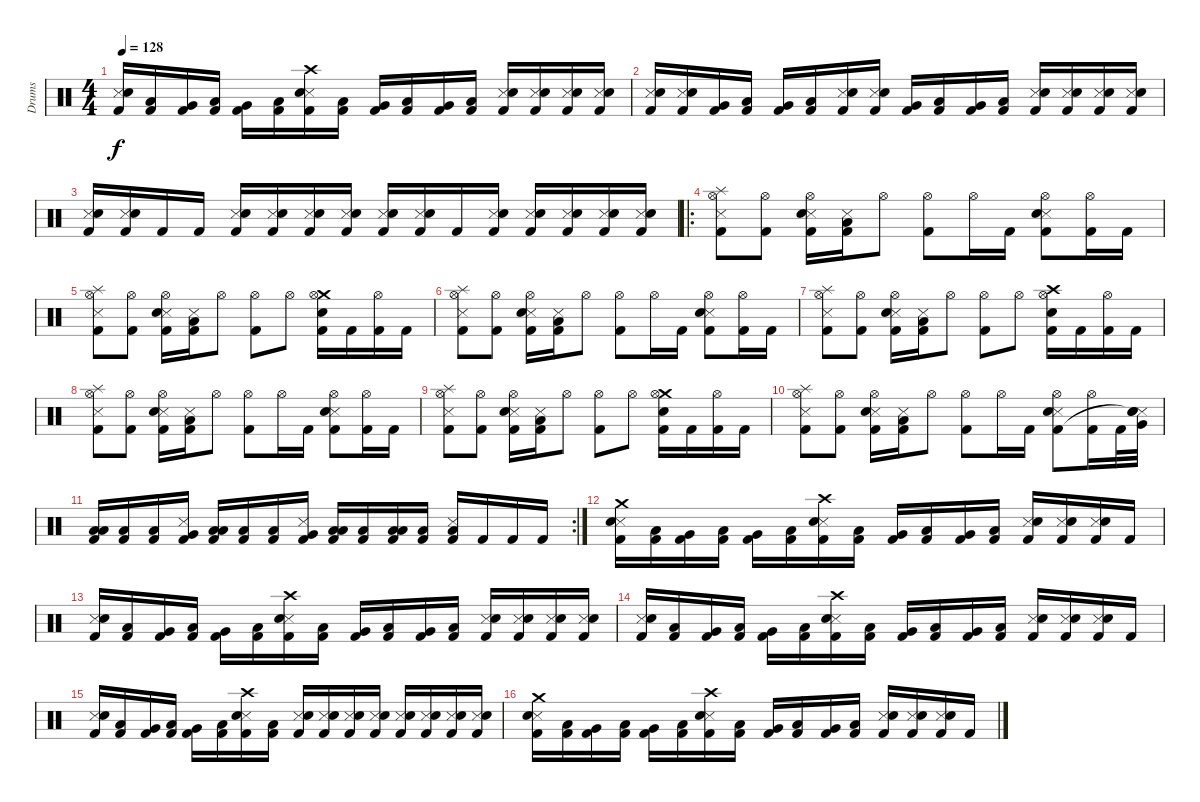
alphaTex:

\track ("Drums" "Drums") {instrument percussion}
\staff {score}
\articulation defaults
\ts (4 4)
\tempo 128
\clef neutral
\ks c
("Snare (side stick) 3" "Electric Snare (hit)" "Kick (hit) 2").16{dy f} ("Low Floor Tom (hit)" "Kick (hit) 2").16 ("Very Low Tom (hit)" "Kick (hit) 2").16 ("Low Floor Tom (hit)" "Kick (hit) 2").16 ("Very Low Tom (hit)" "Kick (hit) 2").16 ("Low Floor Tom (hit)" "Kick (hit) 2").16 ("Crash high (hit)" "Snare (side stick) 3" "Electric Snare (hit)" "Kick (hit) 2").16 ("Low Floor Tom (hit)" "Kick (hit) 2").16 ("Very Low Tom (hit)" "Kick (hit) 2").16 ("Low Floor Tom (hit)" "Kick (hit) 2").16 ("Very Low Tom (hit)" "Kick (hit) 2").16 ("Low Floor Tom (hit)" "Kick (hit) 2").16 ("Snare (side stick) 3" "Electric Snare (hit)" "Kick (hit) 2").16 ("Snare (side stick) 3" "Electric Snare (hit)" "Kick (hit) 2").16 ("Snare (side stick) 3" "Electric Snare (hit)" "Kick (hit) 2").16 ("Snare (side stick) 3" "Electric Snare (hit)" "Kick (hit) 2").16 |
("Snare (side stick) 3" "Electric Snare (hit)" "Kick (hit) 2").16 ("Snare (side stick) 3" "Electric Snare (hit)" "Kick (hit) 2").16 ("Very Low Tom (hit)" "Kick (hit) 2").16 ("Low Floor Tom (hit)" "Kick (hit) 2").16 ("Very Low Tom (hit)" "Kick (hit) 2").16 ("Low Floor Tom (hit)" "Kick (hit) 2").16 ("Snare (side stick) 3" "Electric Snare (hit)" "Kick (hit) 2").16 ("Snare (side stick) 3" "Electric Snare (hit)" "Kick (hit) 2").16 ("Very Low Tom (hit)" "Kick (hit) 2").16 ("Low Floor Tom (hit)" "Kick (hit) 2").16 ("Very Low Tom (hit)" "Kick (hit) 2").16 ("Low Floor Tom (hit)" "Kick (hit) 2").16 ("Snare (side stick) 3" "Electric Snare (hit)" "Kick (hit) 2").16 ("Snare (side stick) 3" "Electric Snare (hit)" "Kick (hit) 2").16 ("Snare (side stick) 3" "Electric Snare (hit)" "Kick (hit) 2").16 ("Snare (side stick) 3" "Electric Snare (hit)" "Kick (hit) 2").16 |
("Snare (side stick) 3" "Electric Snare (hit)" "Kick (hit) 2").16 ("Snare (side stick) 3" "Electric Snare (hit)" "Kick (hit) 2").16 "Kick (hit) 2".16 "Kick (hit) 2".16 ("Snare (side stick) 3" "Electric Snare (hit)" "Kick (hit) 2").16 ("Snare (side stick) 3" "Electric Snare (hit)" "Kick (hit) 2").16 ("Snare (side stick) 3" "Electric Snare (hit)" "Kick (hit) 2").16 ("Snare (side stick) 3" "Electric Snare (hit)" "Kick (hit) 2").16 ("Snare (side stick) 3" "Electric Snare (hit)" "Kick (hit) 2").16 ("Snare (side stick) 3" "Electric Snare (hit)" "Kick (hit) 2").16 "Kick (hit) 2".16 ("Snare (side stick) 3" "Electric Snare (hit)" "Kick (hit) 2").16 ("Snare (side stick) 3" "Electric Snare (hit)" "Kick (hit) 2").16 ("Snare (side stick) 3" "Electric Snare (hit)" "Kick (hit) 2").16 ("Snare (side stick) 3" "Electric Snare (hit)" "Kick (hit) 2").16 ("Snare (side stick) 3" "Electric Snare (hit)" "Kick (hit) 2").16 |
\ro
("Splash (hit)" "Snare (side stick) 3" "Hi-Hat (open)" "Kick (hit) 2").8 ("Hi-Hat (open)" "Kick (hit) 2").8 ("Snare (side stick) 3" "Hi-Hat (open)" "Electric Snare (hit)" "Kick (hit) 2").16 ("Snare (side stick) 3" "Low Floor Tom (hit)" "Kick (hit) 2").16 "Hi-Hat (open)".8 ("Hi-Hat (open)" "Kick (hit) 2").8 "Hi-Hat (open)".16 "Kick (hit) 2".16 ("Snare (side stick) 3" "Hi-Hat (open)" "Electric Snare (hit)" "Kick (hit) 2").8 ("Hi-Hat (open)" "Kick (hit) 2").16 "Kick (hit) 2".16 |
("Splash (hit)" "Snare (side stick) 3" "Hi-Hat (open)" "Kick (hit) 2").8 ("Hi-Hat (open)" "Kick (hit) 2").8 ("Snare (side stick) 3" "Hi-Hat (open)" "Electric Snare (hit)" "Kick (hit) 2").16 ("Snare (side stick) 3" "Low Floor Tom (hit)" "Kick (hit) 2").16 "Hi-Hat (open)".8 ("Hi-Hat (open)" "Kick (hit) 2").8 "Hi-Hat (open)".8 ("Crash medium (hit)" "Hi-Hat (open)" "Electric Snare (hit)" "Kick (hit) 2").16 "Kick (hit) 2".16 ("Hi-Hat (open)" "Kick (hit) 2").16 "Kick (hit) 2".16 |
("Splash (hit)" "Snare (side stick) 3" "Hi-Hat (open)" "Kick (hit) 2").8 ("Hi-Hat (open)" "Kick (hit) 2").8 ("Snare (side stick) 3" "Hi-Hat (open)" "Electric Snare (hit)" "Kick (hit) 2").16 ("Snare (side stick) 3" "Low Floor Tom (hit)" "Kick (hit) 2").16 "Hi-Hat (open)".8 ("Hi-Hat (open)" "Kick (hit) 2").8 "Hi-Hat (open)".16 "Kick (hit) 2".16 ("Snare (side stick) 3" "Hi-Hat (open)" "Electric Snare (hit)" "Kick (hit) 2").8 ("Hi-Hat (open)" "Kick (hit) 2").16 "Kick (hit) 2".16 |
("Splash (hit)" "Snare (side stick) 3" "Hi-Hat (open)" "Kick (hit) 2").8 ("Hi-Hat (open)" "Kick (hit) 2").8 ("Snare (side stick) 3" "Hi-Hat (open)" "Electric Snare (hit)" "Kick (hit) 2").16 ("Snare (side stick) 3" "Low Floor Tom (hit)" "Kick (hit) 2").16 "Hi-Hat (open)".8 ("Hi-Hat (open)" "Kick (hit) 2").8 "Hi-Hat (open)".8 ("Crash high (hit)" "Hi-Hat (open)" "Electric Snare (hit)" "Kick (hit) 2").16 "Kick (hit) 2".16 ("Hi-Hat (open)" "Kick (hit) 2").16 "Kick (hit) 2".16 |
("Splash (hit)" "Snare (side stick) 3" "Hi-Hat (open)" "Kick (hit) 2").8 ("Hi-Hat (open)" "Kick (hit) 2").8 ("Snare (side stick) 3" "Hi-Hat (open)" "Electric Snare (hit)" "Kick (hit) 2").16 ("Snare (side stick) 3" "Low Floor Tom (hit)" "Kick (hit) 2").16 "Hi-Hat (open)".8 ("Hi-Hat (open)" "Kick (hit) 2").8 "Hi-Hat (open)".16 "Kick (hit) 2".16 ("Snare (side stick) 3" "Hi-Hat (open)" "Electric Snare (hit)" "Kick (hit) 2").8 ("Hi-Hat (open)" "Kick (hit) 2").16 "Kick (hit) 2".16 |
("Splash (hit)" "Snare (side stick) 3" "Hi-Hat (open)" "Kick (hit) 2").8 ("Hi-Hat (open)" "Kick (hit) 2").8 ("Snare (side stick) 3" "Hi-Hat (open)" "Electric Snare (hit)" "Kick (hit) 2").16 ("Snare (side stick) 3" "Low Floor Tom (hit)" "Kick (hit) 2").16 "Hi-Hat (open)".8 ("Hi-Hat (open)" "Kick (hit) 2").8 "Hi-Hat (open)".8 ("Crash medium (hit)" "Hi-Hat (open)" "Electric Snare (hit)" "Kick (hit) 2").16 "Kick (hit) 2".16 ("Hi-Hat (open)" "Kick (hit) 2").16 "Kick (hit) 2".16 |
("Splash (hit)" "Snare (side stick) 3" "Hi-Hat (open)" "Kick (hit) 2").8 ("Hi-Hat (open)" "Kick (hit) 2").8 ("Snare (side stick) 3" "Hi-Hat (open)" "Electric Snare (hit)" "Kick (hit) 2").16 ("Snare (side stick) 3" "Low Floor Tom (hit)" "Kick (hit) 2").16 "Hi-Hat (open)".8 ("Hi-Hat (open)" "Kick (hit) 2").8 "Hi-Hat (open)".16 "Kick (hit) 2".16 ("Snare (side stick) 3" "Hi-Hat (open)" "Electric Snare (hit)" "Kick (hit) 2").8 ("Hi-Hat (open)" "Kick (hit) 2").16 "Kick (hit) 2".32 ("Snare (side stick) 3" "Very Low Tom (hit)" "Electric Snare (hit)" "Snare (hit)"{t}).32 |
\rc 2
("Low Floor Tom (hit)" "Low Floor Tom (hit)" "Kick (hit) 2").16 ("Low Floor Tom (hit)" "Kick (hit) 2").16 ("Low Floor Tom (hit)" "Kick (hit) 2").16 ("Snare (side stick) 3" "Very Low Tom (hit)" "Kick (hit) 2").16 ("Low Floor Tom (hit)" "Low Floor Tom (hit)" "Kick (hit) 2").16 ("Low Floor Tom (hit)" "Kick (hit) 2").16 ("Low Floor Tom (hit)" "Kick (hit) 2").16 ("Snare (side stick) 3" "Very Low Tom (hit)" "Kick (hit) 2").16 ("Low Floor Tom (hit)" "Low Floor Tom (hit)" "Kick (hit) 2").16 ("Low Floor Tom (hit)" "Kick (hit) 2").16 ("Low Floor Tom (hit)" "Low Floor Tom (hit)" "Kick (hit) 2").16 ("Low Floor Tom (hit)" "Kick (hit) 2").16 ("Snare (side stick) 3" "Low Floor Tom (hit)" "Kick (hit) 2").16 "Kick (hit) 2".16 "Kick (hit) 2".16 "Kick (hit) 2".16 |
("Crash medium (hit)" "Snare (side stick) 3" "Electric Snare (hit)" "Kick (hit) 2").16 ("Low Floor Tom (hit)" "Kick (hit) 2").16 ("Very Low Tom (hit)" "Kick (hit) 2").16 ("Low Floor Tom (hit)" "Kick (hit) 2").16 ("Very Low Tom (hit)" "Kick (hit) 2").16 ("Low Floor Tom (hit)" "Kick (hit) 2").16 ("Crash high (hit)" "Snare (side stick) 3" "Electric Snare (hit)" "Kick (hit) 2").16 ("Low Floor Tom (hit)" "Kick (hit) 2").16 ("Very Low Tom (hit)" "Kick (hit) 2").16 ("Low Floor Tom (hit)" "Kick (hit) 2").16 ("Very Low Tom (hit)" "Kick (hit) 2").16 ("Low Floor Tom (hit)" "Kick (hit) 2").16 ("Snare (side stick) 3" "Electric Snare (hit)" "Kick (hit) 2").16 ("Snare (side stick) 3" "Electric Snare (hit)" "Kick (hit) 2").16 ("Snare (side stick) 3" "Electric Snare (hit)" "Kick (hit) 2").16 "Kick (hit) 2".16 |
("Snare (side stick) 3" "Electric Snare (hit)" "Kick (hit) 2").16 ("Low Floor Tom (hit)" "Kick (hit) 2").16 ("Very Low Tom (hit)" "Kick (hit) 2").16 ("Low Floor Tom (hit)" "Kick (hit) 2").16 ("Very Low Tom (hit)" "Kick (hit) 2").16 ("Low Floor Tom (hit)" "Kick (hit) 2").16 ("Crash high (hit)" "Snare (side stick) 3" "Electric Snare (hit)" "Kick (hit) 2").16 ("Low Floor Tom (hit)" "Kick (hit) 2").16 ("Very Low Tom (hit)" "Kick (hit) 2").16 ("Low Floor Tom (hit)" "Kick (hit) 2").16 ("Very Low Tom (hit)" "Kick (hit) 2").16 ("Low Floor Tom (hit)" "Kick (hit) 2").16 ("Snare (side stick) 3" "Electric Snare (hit)" "Kick (hit) 2").16 ("Snare (side stick) 3" "Electric Snare (hit)" "Kick (hit) 2").16 ("Snare (side stick) 3" "Electric Snare (hit)" "Kick (hit) 2").16 ("Snare (side stick) 3" "Electric Snare (hit)" "Kick (hit) 2").16 |
("Snare (side stick) 3" "Electric Snare (hit)" "Kick (hit) 2").16 ("Low Floor Tom (hit)" "Kick (hit) 2").16 ("Very Low Tom (hit)" "Kick (hit) 2").16 ("Low Floor Tom (hit)" "Kick (hit) 2").16 ("Very Low Tom (hit)" "Kick (hit) 2").16 ("Low Floor Tom (hit)" "Kick (hit) 2").16 ("Crash high (hit)" "Snare (side stick) 3" "Electric Snare (hit)" "Kick (hit) 2").16 ("Low Floor Tom (hit)" "Kick (hit) 2").16 ("Very Low Tom (hit)" "Kick (hit) 2").16 ("Low Floor Tom (hit)" "Kick (hit) 2").16 ("Very Low Tom (hit)" "Kick (hit) 2").16 ("Low Floor Tom (hit)" "Kick (hit) 2").16 ("Snare (side stick) 3" "Electric Snare (hit)" "Kick (hit) 2").16 ("Snare (side stick) 3" "Electric Snare (hit)" "Kick (hit) 2").16 ("Snare (side stick) 3" "Electric Snare (hit)" "Kick (hit) 2").16 "Kick (hit) 2".16 |
("Snare (side stick) 3" "Electric Snare (hit)" "Kick (hit) 2").16 ("Low Floor Tom (hit)" "Kick (hit) 2").16 ("Very Low Tom (hit)" "Kick (hit) 2").16 ("Low Floor Tom (hit)" "Kick (hit) 2").16 ("Very Low Tom (hit)" "Kick (hit) 2").16 ("Low Floor Tom (hit)" "Kick (hit) 2").16 ("Crash high (hit)" "Snare (side stick) 3" "Electric Snare (hit)" "Kick (hit) 2").16 ("Low Floor Tom (hit)" "Kick (hit) 2").16 ("Snare (side stick) 3" "Electric Snare (hit)" "Kick (hit) 2").16 ("Snare (side stick) 3" "Electric Snare (hit)" "Kick (hit) 2").16 ("Snare (side stick) 3" "Electric Snare (hit)" "Kick (hit) 2").16 ("Snare (side stick) 3" "Electric Snare (hit)" "Kick (hit) 2").16 ("Snare (side stick) 3" "Electric Snare (hit)" "Kick (hit) 2").16 ("Snare (side stick) 3" "Electric Snare (hit)" "Kick (hit) 2").16 ("Snare (side stick) 3" "Electric Snare (hit)" "Kick (hit) 2").16 ("Snare (side stick) 3" "Electric Snare (hit)" "Kick (hit) 2").16 |
("Crash medium (hit)" "Snare (side stick) 3" "Electric Snare (hit)" "Kick (hit) 2").16 ("Low Floor Tom (hit)" "Kick (hit) 2").16 ("Very Low Tom (hit)" "Kick (hit) 2").16 ("Low Floor Tom (hit)" "Kick (hit) 2").16 ("Very Low Tom (hit)" "Kick (hit) 2").16 ("Low Floor Tom (hit)" "Kick (hit) 2").16 ("Crash high (hit)" "Snare (side stick) 3" "Electric Snare (hit)" "Kick (hit) 2").16 ("Low Floor Tom (hit)" "Kick (hit) 2").16 ("Very Low Tom (hit)" "Kick (hit) 2").16 ("Low Floor Tom (hit)" "Kick (hit) 2").16 ("Very Low Tom (hit)" "Kick (hit) 2").16 ("Low Floor Tom (hit)" "Kick (hit) 2").16 ("Snare (side stick) 3" "Electric Snare (hit)" "Kick (hit) 2").16 ("Snare (side stick) 3" "Electric Snare (hit)" "Kick (hit) 2").16 ("Snare (side stick) 3" "Electric Snare (hit)" "Kick (hit) 2").16 "Kick (hit) 2".16
